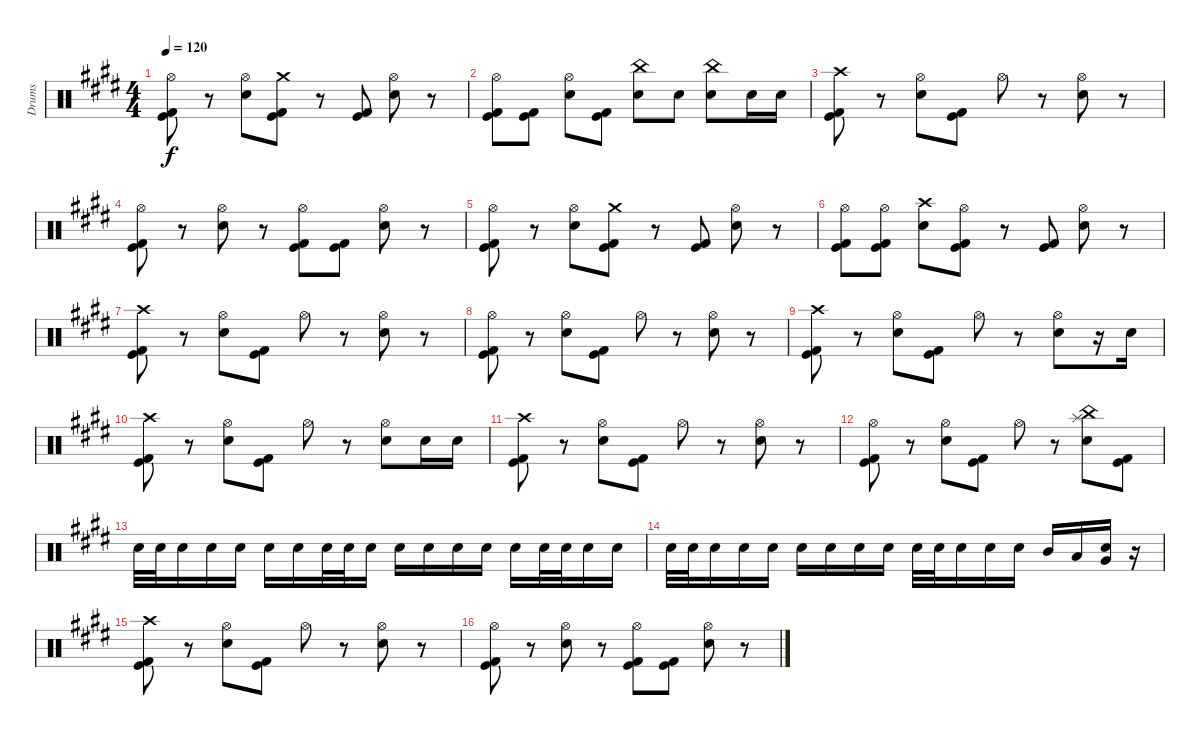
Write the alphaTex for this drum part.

\track ("Drums" "Drums") {instrument percussion}
\staff {score}
\articulation defaults
\ts (4 4)
\tempo 120
\clef neutral
\ks e
("Hi-Hat (open)" "Kick (hit)" "Kick (hit) 2").8{dy f} r.8 ("Hi-Hat (open)" "Electric Snare (hit)").8 ("Crash medium (hit)" "Kick (hit)" "Kick (hit) 2").8 r.8 ("Kick (hit) 2" "Kick (hit)").8 ("Hi-Hat (open)" "Electric Snare (hit)").8 r.8 |
("Hi-Hat (open)" "Kick (hit)" "Kick (hit) 2").8 ("Kick (hit) 2" "Kick (hit)").8 ("Hi-Hat (open)" "Electric Snare (hit)").8 ("Kick (hit)" "Kick (hit) 2").8 ("China (hit)" "Electric Snare (hit)").8 "Electric Snare (hit)".8 ("China (hit)" "Electric Snare (hit)").8 "Electric Snare (hit)".16 "Electric Snare (hit)".16 |
("Crash high (hit)" "Kick (hit)" "Kick (hit) 2").8 r.8 ("Hi-Hat (open)" "Electric Snare (hit)").8 ("Kick (hit)" "Kick (hit) 2").8 "Hi-Hat (open)".8 r.8 ("Hi-Hat (open)" "Electric Snare (hit)").8 r.8 |
("Hi-Hat (open)" "Kick (hit)" "Kick (hit) 2").8 r.8 ("Hi-Hat (open)" "Electric Snare (hit)").8 r.8 ("Hi-Hat (open)" "Kick (hit)" "Kick (hit) 2").8 ("Kick (hit)" "Kick (hit) 2").8 ("Hi-Hat (open)" "Electric Snare (hit)").8 r.8 |
("Hi-Hat (open)" "Kick (hit)" "Kick (hit) 2").8 r.8 ("Hi-Hat (open)" "Electric Snare (hit)").8 ("Crash medium (hit)" "Kick (hit)" "Kick (hit) 2").8 r.8 ("Kick (hit) 2" "Kick (hit)").8 ("Hi-Hat (open)" "Electric Snare (hit)").8 r.8 |
("Hi-Hat (open)" "Kick (hit)" "Kick (hit) 2").8 ("Hi-Hat (open)" "Kick (hit) 2" "Kick (hit)").8 ("Crash high (hit)" "Electric Snare (hit)").8 ("Hi-Hat (open)" "Kick (hit)" "Kick (hit) 2").8 r.8 ("Kick (hit)" "Kick (hit) 2").8 ("Hi-Hat (open)" "Electric Snare (hit)").8 r.8 |
("Crash high (hit)" "Kick (hit)" "Kick (hit) 2").8 r.8 ("Hi-Hat (open)" "Electric Snare (hit)").8 ("Kick (hit)" "Kick (hit) 2").8 "Hi-Hat (open)".8 r.8 ("Hi-Hat (open)" "Electric Snare (hit)").8 r.8 |
("Hi-Hat (open)" "Kick (hit)" "Kick (hit) 2").8 r.8 ("Hi-Hat (open)" "Electric Snare (hit)").8 ("Kick (hit)" "Kick (hit) 2").8 "Hi-Hat (open)".8 r.8 ("Hi-Hat (open)" "Electric Snare (hit)").8 r.8 |
("Crash high (hit)" "Kick (hit)" "Kick (hit) 2").8 r.8 ("Hi-Hat (open)" "Electric Snare (hit)").8 ("Kick (hit)" "Kick (hit) 2").8 "Hi-Hat (open)".8 r.8 ("Hi-Hat (open)" "Electric Snare (hit)").8 r.16 "Electric Snare (hit)".16 |
("Crash high (hit)" "Kick (hit)" "Kick (hit) 2").8 r.8 ("Hi-Hat (open)" "Electric Snare (hit)").8 ("Kick (hit)" "Kick (hit) 2").8 "Hi-Hat (open)".8 r.8 ("Hi-Hat (open)" "Electric Snare (hit)").8 "Electric Snare (hit)".16 "Electric Snare (hit)".16 |
("Crash high (hit)" "Kick (hit)" "Kick (hit) 2").8 r.8 ("Hi-Hat (open)" "Electric Snare (hit)").8 ("Kick (hit)" "Kick (hit) 2").8 "Hi-Hat (open)".8 r.8 ("Hi-Hat (open)" "Electric Snare (hit)").8 r.8 |
("Hi-Hat (open)" "Kick (hit)" "Kick (hit) 2").8 r.8 ("Hi-Hat (open)" "Electric Snare (hit)").8 ("Kick (hit)" "Kick (hit) 2").8 "Hi-Hat (open)".8 r.8 ("China (hit)" "Splash (hit)" "Electric Snare (hit)").8 ("Kick (hit)" "Kick (hit) 2").8 |
"Electric Snare (hit)".32 "Electric Snare (hit)".32 "Electric Snare (hit)".16 "Electric Snare (hit)".16 "Electric Snare (hit)".16 "Electric Snare (hit)".16 "Electric Snare (hit)".16 "Electric Snare (hit)".32 "Electric Snare (hit)".32 "Electric Snare (hit)".16 "Electric Snare (hit)".16 "Electric Snare (hit)".16 "Electric Snare (hit)".16 "Electric Snare (hit)".16 "Electric Snare (hit)".16 "Electric Snare (hit)".32 "Electric Snare (hit)".32 "Electric Snare (hit)".16 "Electric Snare (hit)".16 |
"Electric Snare (hit)".32 "Electric Snare (hit)".32 "Electric Snare (hit)".16 "Electric Snare (hit)".16 "Electric Snare (hit)".16 "Electric Snare (hit)".16 "Electric Snare (hit)".16 "Electric Snare (hit)".16 "Electric Snare (hit)".16 "Electric Snare (hit)".32 "Electric Snare (hit)".32 "Electric Snare (hit)".16 "Electric Snare (hit)".16 "Electric Snare (hit)".16 "Mid Tom (hit)".16 "Low Tom (hit)".16 ("Very Low Tom (hit)" "Electric Snare (hit)").16 r.16 |
("Crash high (hit)" "Kick (hit)" "Kick (hit) 2").8 r.8 ("Hi-Hat (open)" "Electric Snare (hit)").8 ("Kick (hit)" "Kick (hit) 2").8 "Hi-Hat (open)".8 r.8 ("Hi-Hat (open)" "Electric Snare (hit)").8 r.8 |
("Hi-Hat (open)" "Kick (hit)" "Kick (hit) 2").8 r.8 ("Hi-Hat (open)" "Electric Snare (hit)").8 r.8 ("Hi-Hat (open)" "Kick (hit)" "Kick (hit) 2").8 ("Kick (hit)" "Kick (hit) 2").8 ("Hi-Hat (open)" "Electric Snare (hit)").8 r.8
